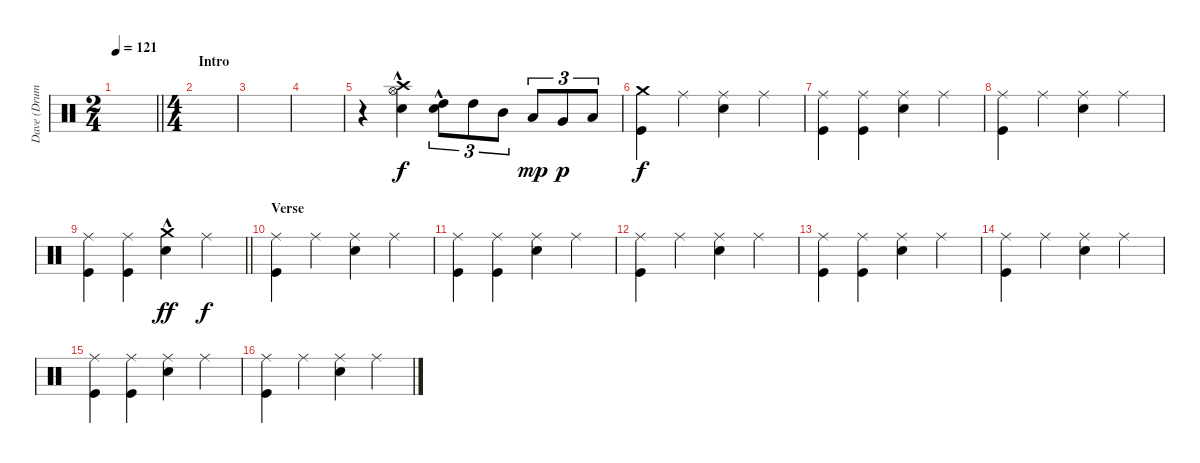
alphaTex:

\track ("Dave (Drums)" "Dave (Drum") {instrument percussion}
\staff {score}
\articulation defaults
\ts (2 4)
\tempo 121
\clef neutral
\barLineRight lightlight
\ks c
|
\ts (4 4)
\section ("" "Intro")
|
|
|
r.4 ("Hi-Hat (open)"{hac} "Crash high (hit)" "Snare (hit) 2"{hac}).4 ("High Tom (hit)" "Snare (hit) 2"{hac}).8{tu (3 2)} "High Tom (hit)".8{tu (3 2) dy f} "Mid Tom (hit)".8{tu (3 2)} "Low Tom (hit)".8{tu (3 2) dy mp} "Very Low Tom (hit)".8{tu (3 2) dy p} "Low Floor Tom (hit)".8{tu (3 2)} |
("Crash medium (hit)" "Kick (hit)").4{dy f} "Ride (middle)".4 ("Ride (middle)" "Snare (hit) 2").4 "Ride (middle)".4 |
("Ride (middle)" "Kick (hit)").4 ("Ride (middle)" "Kick (hit)").4 ("Ride (middle)" "Snare (hit) 2").4 "Ride (middle)".4 |
("Ride (middle)" "Kick (hit)").4 "Ride (middle)".4 ("Ride (middle)" "Snare (hit) 2").4 "Ride (middle)".4 |
\barLineRight lightlight
("Ride (middle)" "Kick (hit)").4 ("Ride (middle)" "Kick (hit)").4 ("Crash medium (hit)"{hac} "Snare (hit) 2").4{dy ff} "Ride (middle)".4{dy f} |
\section ("" "Verse")
("Ride (middle)" "Kick (hit)").4 "Ride (middle)".4 ("Ride (middle)" "Snare (hit) 2").4 "Ride (middle)".4 |
("Ride (middle)" "Kick (hit)").4 ("Ride (middle)" "Kick (hit)").4 ("Ride (middle)" "Snare (hit) 2").4 "Ride (middle)".4 |
("Ride (middle)" "Kick (hit)").4 "Ride (middle)".4 ("Ride (middle)" "Snare (hit) 2").4 "Ride (middle)".4 |
("Ride (middle)" "Kick (hit)").4 ("Ride (middle)" "Kick (hit)").4 ("Ride (middle)" "Snare (hit) 2").4 "Ride (middle)".4 |
("Ride (middle)" "Kick (hit)").4 "Ride (middle)".4 ("Ride (middle)" "Snare (hit) 2").4 "Ride (middle)".4 |
("Ride (middle)" "Kick (hit)").4 ("Ride (middle)" "Kick (hit)").4 ("Ride (middle)" "Snare (hit) 2").4 "Ride (middle)".4 |
("Ride (middle)" "Kick (hit)").4 "Ride (middle)".4 ("Ride (middle)" "Snare (hit) 2").4 "Ride (middle)".4
